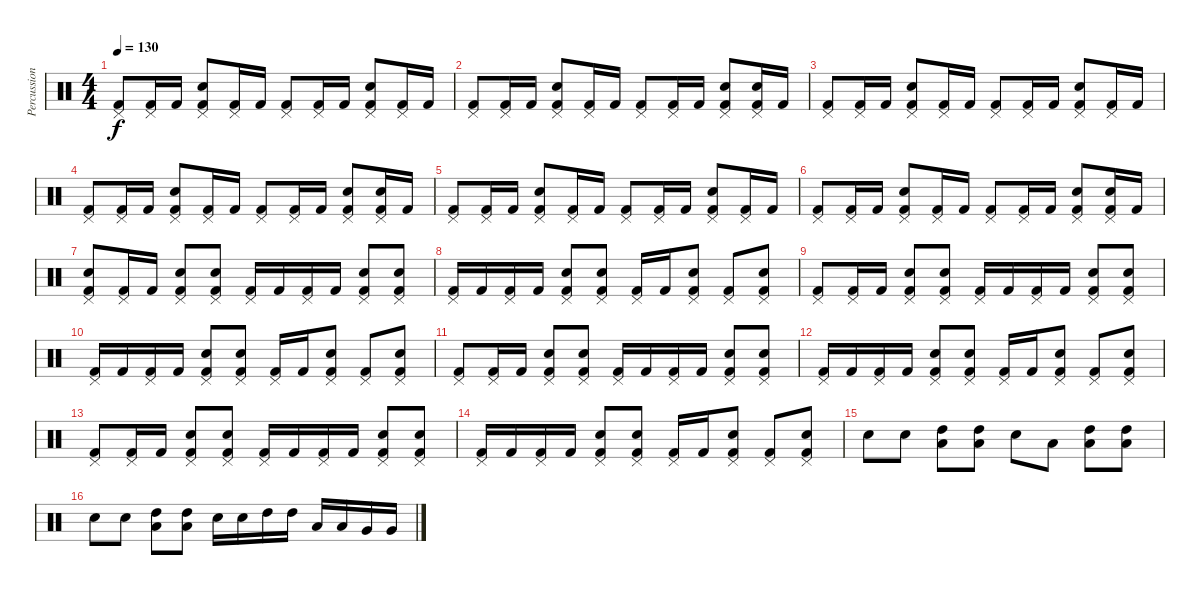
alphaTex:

\track ("Percussion" "Percussion") {instrument percussion}
\staff {score}
\articulation defaults
\ts (4 4)
\tempo 130
\clef neutral
\ks c
("Pedal Hi-Hat (hit)" "Kick (hit) 2").8{dy f} ("Pedal Hi-Hat (hit)" "Kick (hit) 2").16 "Kick (hit) 2".16 ("Pedal Hi-Hat (hit)" "Snare (hit) 2" "Kick (hit) 2").8 ("Pedal Hi-Hat (hit)" "Kick (hit) 2").16 "Kick (hit) 2".16 ("Pedal Hi-Hat (hit)" "Kick (hit) 2").8 ("Pedal Hi-Hat (hit)" "Kick (hit) 2").16 "Kick (hit) 2".16 ("Pedal Hi-Hat (hit)" "Snare (hit) 2" "Kick (hit) 2").8 ("Pedal Hi-Hat (hit)" "Kick (hit) 2").16 "Kick (hit) 2".16 |
("Pedal Hi-Hat (hit)" "Kick (hit) 2").8 ("Pedal Hi-Hat (hit)" "Kick (hit) 2").16 "Kick (hit) 2".16 ("Pedal Hi-Hat (hit)" "Snare (hit) 2" "Kick (hit) 2").8 ("Pedal Hi-Hat (hit)" "Kick (hit) 2").16 "Kick (hit) 2".16 ("Pedal Hi-Hat (hit)" "Kick (hit) 2").8 ("Pedal Hi-Hat (hit)" "Kick (hit) 2").16 "Kick (hit) 2".16 ("Pedal Hi-Hat (hit)" "Snare (hit) 2" "Kick (hit) 2").8 ("Pedal Hi-Hat (hit)" "Snare (hit) 2" "Kick (hit) 2").16 "Kick (hit) 2".16 |
("Pedal Hi-Hat (hit)" "Kick (hit) 2").8 ("Pedal Hi-Hat (hit)" "Kick (hit) 2").16 "Kick (hit) 2".16 ("Pedal Hi-Hat (hit)" "Snare (hit) 2" "Kick (hit) 2").8 ("Pedal Hi-Hat (hit)" "Kick (hit) 2").16 "Kick (hit) 2".16 ("Pedal Hi-Hat (hit)" "Kick (hit) 2").8 ("Pedal Hi-Hat (hit)" "Kick (hit) 2").16 "Kick (hit) 2".16 ("Pedal Hi-Hat (hit)" "Snare (hit) 2" "Kick (hit) 2").8 ("Pedal Hi-Hat (hit)" "Kick (hit) 2").16 "Kick (hit) 2".16 |
("Pedal Hi-Hat (hit)" "Kick (hit) 2").8 ("Pedal Hi-Hat (hit)" "Kick (hit) 2").16 "Kick (hit) 2".16 ("Pedal Hi-Hat (hit)" "Snare (hit) 2" "Kick (hit) 2").8 ("Pedal Hi-Hat (hit)" "Kick (hit) 2").16 "Kick (hit) 2".16 ("Pedal Hi-Hat (hit)" "Kick (hit) 2").8 ("Pedal Hi-Hat (hit)" "Kick (hit) 2").16 "Kick (hit) 2".16 ("Pedal Hi-Hat (hit)" "Snare (hit) 2" "Kick (hit) 2").8 ("Pedal Hi-Hat (hit)" "Snare (hit) 2" "Kick (hit) 2").16 "Kick (hit) 2".16 |
("Pedal Hi-Hat (hit)" "Kick (hit) 2").8 ("Pedal Hi-Hat (hit)" "Kick (hit) 2").16 "Kick (hit) 2".16 ("Pedal Hi-Hat (hit)" "Snare (hit) 2" "Kick (hit) 2").8 ("Pedal Hi-Hat (hit)" "Kick (hit) 2").16 "Kick (hit) 2".16 ("Pedal Hi-Hat (hit)" "Kick (hit) 2").8 ("Pedal Hi-Hat (hit)" "Kick (hit) 2").16 "Kick (hit) 2".16 ("Pedal Hi-Hat (hit)" "Snare (hit) 2" "Kick (hit) 2").8 ("Pedal Hi-Hat (hit)" "Kick (hit) 2").16 "Kick (hit) 2".16 |
("Pedal Hi-Hat (hit)" "Kick (hit) 2").8 ("Pedal Hi-Hat (hit)" "Kick (hit) 2").16 "Kick (hit) 2".16 ("Pedal Hi-Hat (hit)" "Snare (hit) 2" "Kick (hit) 2").8 ("Pedal Hi-Hat (hit)" "Kick (hit) 2").16 "Kick (hit) 2".16 ("Pedal Hi-Hat (hit)" "Kick (hit) 2").8 ("Pedal Hi-Hat (hit)" "Kick (hit) 2").16 "Kick (hit) 2".16 ("Pedal Hi-Hat (hit)" "Snare (hit) 2" "Kick (hit) 2").8 ("Pedal Hi-Hat (hit)" "Snare (hit) 2" "Kick (hit) 2").16 "Kick (hit) 2".16 |
("Pedal Hi-Hat (hit)" "Snare (hit) 2" "Kick (hit) 2").8 ("Pedal Hi-Hat (hit)" "Kick (hit) 2").16 "Kick (hit) 2".16 ("Pedal Hi-Hat (hit)" "Snare (hit) 2" "Kick (hit) 2").8 ("Pedal Hi-Hat (hit)" "Snare (hit) 2" "Kick (hit) 2").8 ("Pedal Hi-Hat (hit)" "Kick (hit) 2").16 "Kick (hit) 2".16 ("Pedal Hi-Hat (hit)" "Kick (hit) 2").16 "Kick (hit) 2".16 ("Pedal Hi-Hat (hit)" "Snare (hit) 2" "Kick (hit) 2").8 ("Pedal Hi-Hat (hit)" "Snare (hit) 2" "Kick (hit) 2").8 |
("Pedal Hi-Hat (hit)" "Kick (hit) 2").16 "Kick (hit) 2".16 ("Pedal Hi-Hat (hit)" "Kick (hit) 2").16 "Kick (hit) 2".16 ("Pedal Hi-Hat (hit)" "Snare (hit) 2" "Kick (hit) 2").8 ("Pedal Hi-Hat (hit)" "Snare (hit) 2" "Kick (hit) 2").8 ("Pedal Hi-Hat (hit)" "Kick (hit) 2").16 "Kick (hit) 2".16 ("Pedal Hi-Hat (hit)" "Snare (hit) 2" "Kick (hit) 2").8 ("Pedal Hi-Hat (hit)" "Kick (hit) 2").8 ("Pedal Hi-Hat (hit)" "Snare (hit) 2" "Kick (hit) 2").8 |
("Pedal Hi-Hat (hit)" "Kick (hit) 2").8 ("Pedal Hi-Hat (hit)" "Kick (hit) 2").16 "Kick (hit) 2".16 ("Pedal Hi-Hat (hit)" "Snare (hit) 2" "Kick (hit) 2").8 ("Pedal Hi-Hat (hit)" "Snare (hit) 2" "Kick (hit) 2").8 ("Pedal Hi-Hat (hit)" "Kick (hit) 2").16 "Kick (hit) 2".16 ("Pedal Hi-Hat (hit)" "Kick (hit) 2").16 "Kick (hit) 2".16 ("Pedal Hi-Hat (hit)" "Snare (hit) 2" "Kick (hit) 2").8 ("Pedal Hi-Hat (hit)" "Snare (hit) 2" "Kick (hit) 2").8 |
("Pedal Hi-Hat (hit)" "Kick (hit) 2").16 "Kick (hit) 2".16 ("Pedal Hi-Hat (hit)" "Kick (hit) 2").16 "Kick (hit) 2".16 ("Pedal Hi-Hat (hit)" "Snare (hit) 2" "Kick (hit) 2").8 ("Pedal Hi-Hat (hit)" "Snare (hit) 2" "Kick (hit) 2").8 ("Pedal Hi-Hat (hit)" "Kick (hit) 2").16 "Kick (hit) 2".16 ("Pedal Hi-Hat (hit)" "Snare (hit) 2" "Kick (hit) 2").8 ("Pedal Hi-Hat (hit)" "Kick (hit) 2").8 ("Pedal Hi-Hat (hit)" "Snare (hit) 2" "Kick (hit) 2").8 |
("Pedal Hi-Hat (hit)" "Kick (hit) 2").8 ("Pedal Hi-Hat (hit)" "Kick (hit) 2").16 "Kick (hit) 2".16 ("Pedal Hi-Hat (hit)" "Snare (hit) 2" "Kick (hit) 2").8 ("Pedal Hi-Hat (hit)" "Snare (hit) 2" "Kick (hit) 2").8 ("Pedal Hi-Hat (hit)" "Kick (hit) 2").16 "Kick (hit) 2".16 ("Pedal Hi-Hat (hit)" "Kick (hit) 2").16 "Kick (hit) 2".16 ("Pedal Hi-Hat (hit)" "Snare (hit) 2" "Kick (hit) 2").8 ("Pedal Hi-Hat (hit)" "Snare (hit) 2" "Kick (hit) 2").8 |
("Pedal Hi-Hat (hit)" "Kick (hit) 2").16 "Kick (hit) 2".16 ("Pedal Hi-Hat (hit)" "Kick (hit) 2").16 "Kick (hit) 2".16 ("Pedal Hi-Hat (hit)" "Snare (hit) 2" "Kick (hit) 2").8 ("Pedal Hi-Hat (hit)" "Snare (hit) 2" "Kick (hit) 2").8 ("Pedal Hi-Hat (hit)" "Kick (hit) 2").16 "Kick (hit) 2".16 ("Pedal Hi-Hat (hit)" "Snare (hit) 2" "Kick (hit) 2").8 ("Pedal Hi-Hat (hit)" "Kick (hit) 2").8 ("Pedal Hi-Hat (hit)" "Snare (hit) 2" "Kick (hit) 2").8 |
("Pedal Hi-Hat (hit)" "Kick (hit) 2").8 ("Pedal Hi-Hat (hit)" "Kick (hit) 2").16 "Kick (hit) 2".16 ("Pedal Hi-Hat (hit)" "Snare (hit) 2" "Kick (hit) 2").8 ("Pedal Hi-Hat (hit)" "Snare (hit) 2" "Kick (hit) 2").8 ("Pedal Hi-Hat (hit)" "Kick (hit) 2").16 "Kick (hit) 2".16 ("Pedal Hi-Hat (hit)" "Kick (hit) 2").16 "Kick (hit) 2".16 ("Pedal Hi-Hat (hit)" "Snare (hit) 2" "Kick (hit) 2").8 ("Pedal Hi-Hat (hit)" "Snare (hit) 2" "Kick (hit) 2").8 |
("Pedal Hi-Hat (hit)" "Kick (hit) 2").16 "Kick (hit) 2".16 ("Pedal Hi-Hat (hit)" "Kick (hit) 2").16 "Kick (hit) 2".16 ("Pedal Hi-Hat (hit)" "Snare (hit) 2" "Kick (hit) 2").8 ("Pedal Hi-Hat (hit)" "Snare (hit) 2" "Kick (hit) 2").8 ("Pedal Hi-Hat (hit)" "Kick (hit) 2").16 "Kick (hit) 2".16 ("Pedal Hi-Hat (hit)" "Snare (hit) 2" "Kick (hit) 2").8 ("Pedal Hi-Hat (hit)" "Kick (hit) 2").8 ("Pedal Hi-Hat (hit)" "Snare (hit) 2" "Kick (hit) 2").8 |
"Snare (hit) 2".8 "Snare (hit) 2".8 ("High Tom (hit)" "Low Tom (hit)").8 ("High Tom (hit)" "Low Tom (hit)").8 "Snare (hit) 2".8 "Low Tom (hit)".8 ("High Tom (hit)" "Low Tom (hit)").8 ("High Tom (hit)" "Low Tom (hit)").8 |
"Snare (hit) 2".8 "Snare (hit) 2".8 ("High Tom (hit)" "Low Tom (hit)").8 ("High Tom (hit)" "Low Tom (hit)").8 "Snare (hit) 2".16 "Snare (hit) 2".16 "High Tom (hit)".16 "High Tom (hit)".16 "Low Tom (hit)".16 "Low Tom (hit)".16 "Very Low Tom (hit)".16 "Very Low Tom (hit)".16
